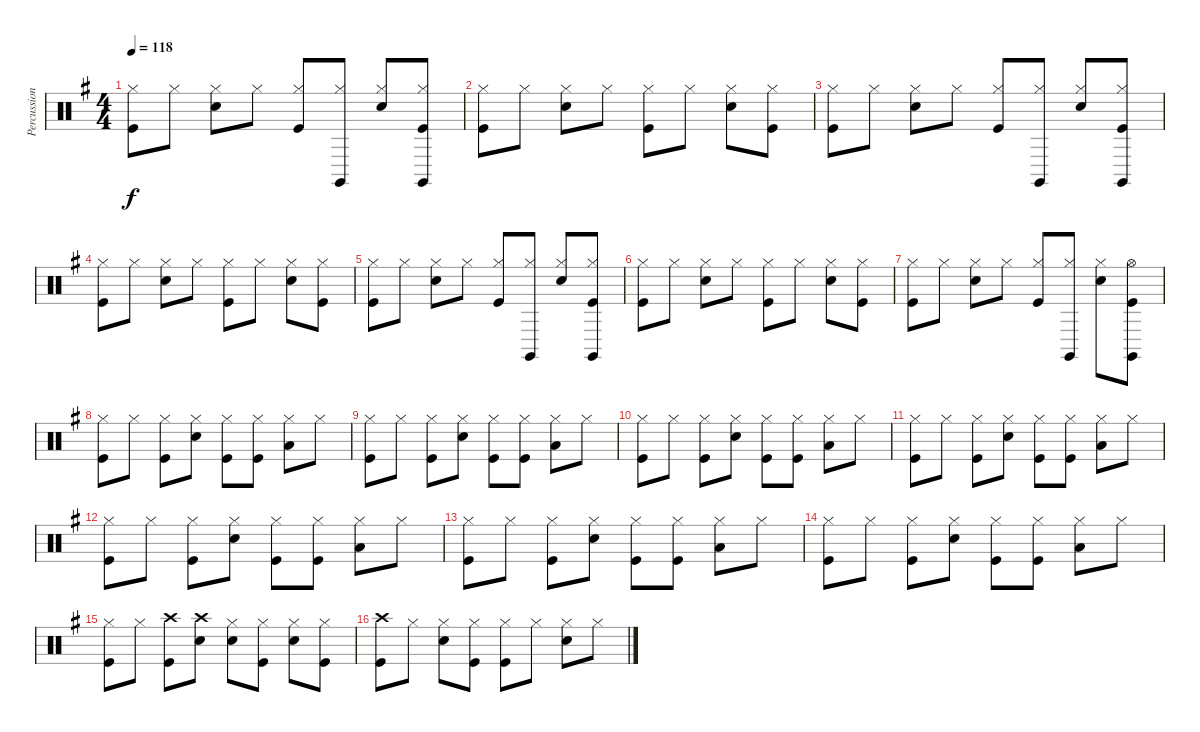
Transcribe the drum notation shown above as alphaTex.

\track ("Percussion" "Percussion") {instrument percussion}
\staff {score}
\articulation defaults
\ts (4 4)
\tempo 118
\clef neutral
\ks g
("Hi-Hat (closed)" "Kick (hit)").8{dy f} "Hi-Hat (closed)".8 ("Hi-Hat (closed)" "Electric Snare (hit)").8 "Hi-Hat (closed)".8 ("Hi-Hat (closed)" "Kick (hit)").8 ("Hi-Hat (closed)" "Claves (hit)").8 ("Hi-Hat (closed)" "Electric Snare (hit)").8 ("Hi-Hat (closed)" "Claves (hit)" "Kick (hit)").8 |
("Hi-Hat (closed)" "Kick (hit)").8 "Hi-Hat (closed)".8 ("Hi-Hat (closed)" "Electric Snare (hit)").8 "Hi-Hat (closed)".8 ("Hi-Hat (closed)" "Kick (hit)").8 "Hi-Hat (closed)".8 ("Hi-Hat (closed)" "Electric Snare (hit)").8 ("Hi-Hat (closed)" "Kick (hit)").8 |
("Hi-Hat (closed)" "Kick (hit)").8 "Hi-Hat (closed)".8 ("Hi-Hat (closed)" "Electric Snare (hit)").8 "Hi-Hat (closed)".8 ("Hi-Hat (closed)" "Kick (hit)").8 ("Hi-Hat (closed)" "Claves (hit)").8 ("Hi-Hat (closed)" "Electric Snare (hit)").8 ("Hi-Hat (closed)" "Claves (hit)" "Kick (hit)").8 |
("Hi-Hat (closed)" "Kick (hit)").8 "Hi-Hat (closed)".8 ("Hi-Hat (closed)" "Electric Snare (hit)").8 "Hi-Hat (closed)".8 ("Hi-Hat (closed)" "Kick (hit)").8 "Hi-Hat (closed)".8 ("Hi-Hat (closed)" "Electric Snare (hit)").8 ("Hi-Hat (closed)" "Kick (hit)").8 |
("Hi-Hat (closed)" "Kick (hit)").8 "Hi-Hat (closed)".8 ("Hi-Hat (closed)" "Electric Snare (hit)").8 "Hi-Hat (closed)".8 ("Hi-Hat (closed)" "Kick (hit)").8 ("Hi-Hat (closed)" "Claves (hit)").8 ("Hi-Hat (closed)" "Electric Snare (hit)").8 ("Hi-Hat (closed)" "Claves (hit)" "Kick (hit)").8 |
("Hi-Hat (closed)" "Kick (hit)").8 "Hi-Hat (closed)".8 ("Hi-Hat (closed)" "Electric Snare (hit)").8 "Hi-Hat (closed)".8 ("Hi-Hat (closed)" "Kick (hit)").8 "Hi-Hat (closed)".8 ("Hi-Hat (closed)" "Electric Snare (hit)").8 ("Hi-Hat (closed)" "Kick (hit)").8 |
("Hi-Hat (closed)" "Kick (hit)").8 "Hi-Hat (closed)".8 ("Hi-Hat (closed)" "Electric Snare (hit)").8 "Hi-Hat (closed)".8 ("Hi-Hat (closed)" "Kick (hit)").8 ("Hi-Hat (closed)" "Claves (hit)").8 ("Hi-Hat (closed)" "Electric Snare (hit)").8 ("Hi-Hat (open)" "Claves (hit)" "Kick (hit)").8 |
("Hi-Hat (closed)" "Kick (hit)").8 "Hi-Hat (closed)".8 ("Hi-Hat (closed)" "Kick (hit)").8 ("Hi-Hat (closed)" "Electric Snare (hit)").8 ("Hi-Hat (closed)" "Kick (hit)").8 ("Hi-Hat (closed)" "Kick (hit)").8 ("Hi-Hat (closed)" "Low Tom (hit)").8 "Hi-Hat (closed)".8 |
("Hi-Hat (closed)" "Kick (hit)").8 "Hi-Hat (closed)".8 ("Hi-Hat (closed)" "Kick (hit)").8 ("Hi-Hat (closed)" "Electric Snare (hit)").8 ("Hi-Hat (closed)" "Kick (hit)").8 ("Hi-Hat (closed)" "Kick (hit)").8 ("Hi-Hat (closed)" "Low Tom (hit)").8 "Hi-Hat (closed)".8 |
("Hi-Hat (closed)" "Kick (hit)").8 "Hi-Hat (closed)".8 ("Hi-Hat (closed)" "Kick (hit)").8 ("Hi-Hat (closed)" "Electric Snare (hit)").8 ("Hi-Hat (closed)" "Kick (hit)").8 ("Hi-Hat (closed)" "Kick (hit)").8 ("Hi-Hat (closed)" "Low Tom (hit)").8 "Hi-Hat (closed)".8 |
("Hi-Hat (closed)" "Kick (hit)").8 "Hi-Hat (closed)".8 ("Hi-Hat (closed)" "Kick (hit)").8 ("Hi-Hat (closed)" "Electric Snare (hit)").8 ("Hi-Hat (closed)" "Kick (hit)").8 ("Hi-Hat (closed)" "Kick (hit)").8 ("Hi-Hat (closed)" "Low Tom (hit)").8 "Hi-Hat (closed)".8 |
("Hi-Hat (closed)" "Kick (hit)").8 "Hi-Hat (closed)".8 ("Hi-Hat (closed)" "Kick (hit)").8 ("Hi-Hat (closed)" "Electric Snare (hit)").8 ("Hi-Hat (closed)" "Kick (hit)").8 ("Hi-Hat (closed)" "Kick (hit)").8 ("Hi-Hat (closed)" "Low Tom (hit)").8 "Hi-Hat (closed)".8 |
("Hi-Hat (closed)" "Kick (hit)").8 "Hi-Hat (closed)".8 ("Hi-Hat (closed)" "Kick (hit)").8 ("Hi-Hat (closed)" "Electric Snare (hit)").8 ("Hi-Hat (closed)" "Kick (hit)").8 ("Hi-Hat (closed)" "Kick (hit)").8 ("Hi-Hat (closed)" "Low Tom (hit)").8 "Hi-Hat (closed)".8 |
("Hi-Hat (closed)" "Kick (hit)").8 "Hi-Hat (closed)".8 ("Hi-Hat (closed)" "Kick (hit)").8 ("Hi-Hat (closed)" "Electric Snare (hit)").8 ("Hi-Hat (closed)" "Kick (hit)").8 ("Hi-Hat (closed)" "Kick (hit)").8 ("Hi-Hat (closed)" "Low Tom (hit)").8 "Hi-Hat (closed)".8 |
("Hi-Hat (closed)" "Kick (hit)").8 "Hi-Hat (closed)".8 ("Crash high (hit)" "Kick (hit)").8 ("Crash high (hit)" "Electric Snare (hit)").8 ("Hi-Hat (closed)" "Electric Snare (hit)").8 ("Hi-Hat (closed)" "Kick (hit)").8 ("Hi-Hat (closed)" "Electric Snare (hit)").8 ("Hi-Hat (closed)" "Kick (hit)").8 |
("Crash high (hit)" "Kick (hit)").8 "Hi-Hat (closed)".8 ("Hi-Hat (closed)" "Electric Snare (hit)").8 ("Hi-Hat (closed)" "Kick (hit)").8 ("Hi-Hat (closed)" "Kick (hit)").8 "Hi-Hat (closed)".8 ("Hi-Hat (closed)" "Electric Snare (hit)").8 "Hi-Hat (closed)".8
